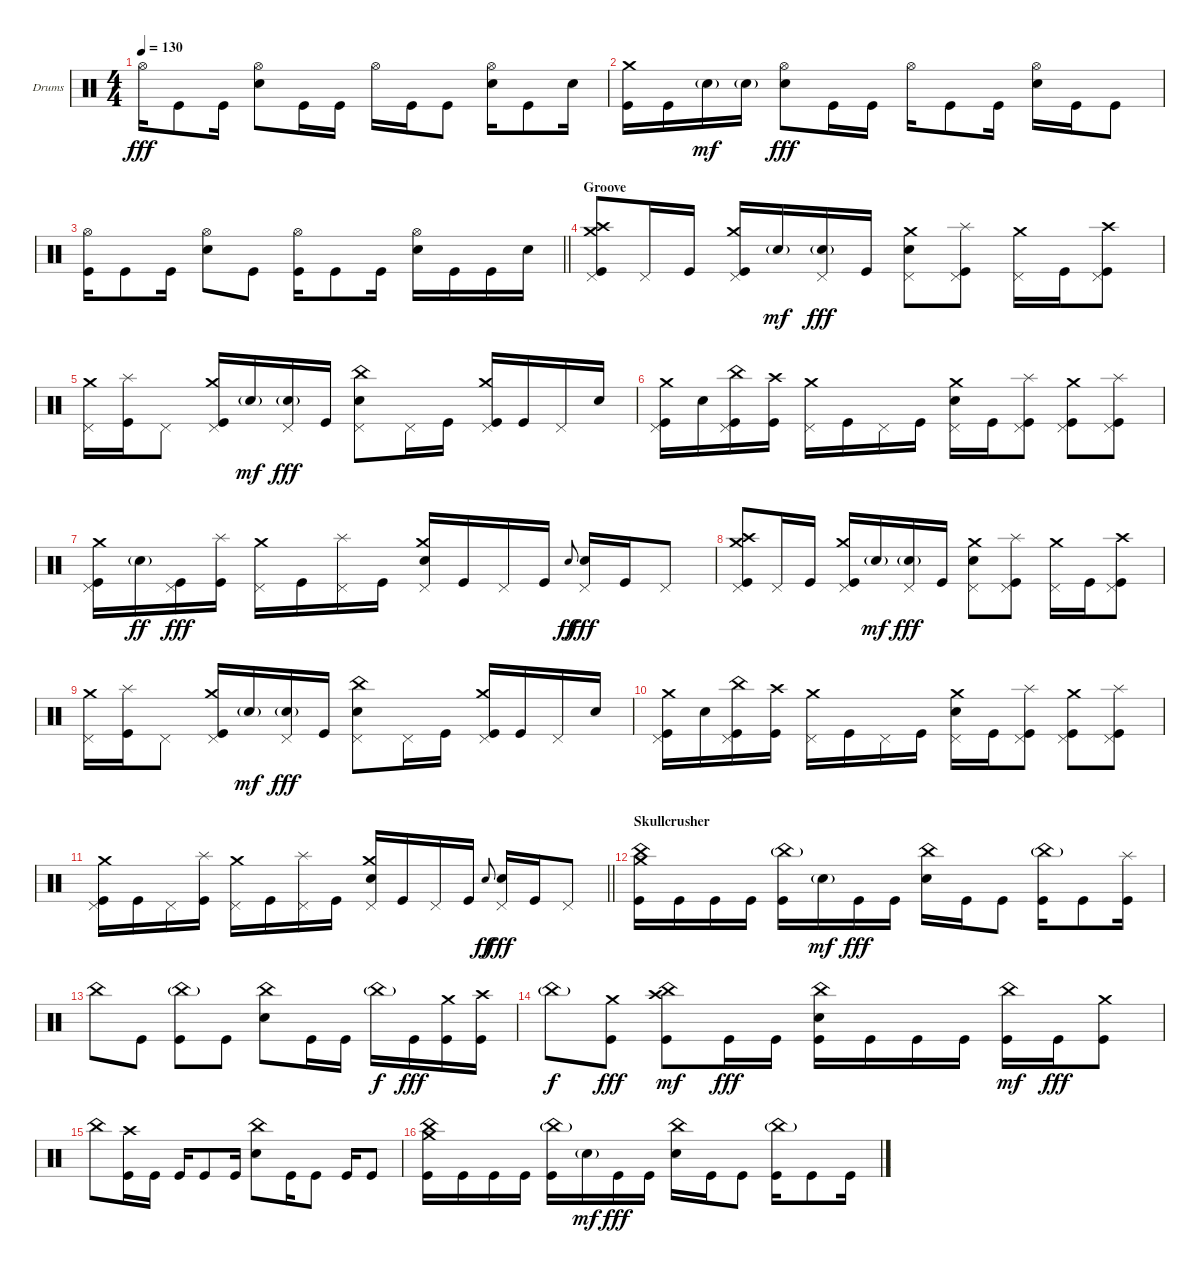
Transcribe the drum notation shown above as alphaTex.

\bracketExtendMode groupsimilarinstruments
\firstSystemTrackNameOrientation horizontal
\otherSystemsTrackNameOrientation horizontal
\track ("Drumkit" "Drums") {instrument percussion}
\staff {score}
\articulation defaults
\ts (4 4)
\tempo 130
\clef neutral
\ks c "Hi-Hat (open)".16{dy fff} "Kick (hit)".8 "Kick (hit)".16
("Hi-Hat (open)" "Snare (hit) 2").8 "Kick (hit)".16 "Kick (hit)".16 "Hi-Hat (open)".16 "Kick (hit)".16 "Kick (hit)".8 ("Hi-Hat (open)" "Snare (hit) 2").16 "Kick (hit)".8 "Snare (hit) 2".16 |
("Crash medium (hit)" "Kick (hit)").16 "Kick (hit)".16 "Snare (hit) 2"{g}.16{dy mf} "Snare (hit) 2"{g}.16 ("Hi-Hat (open)" "Snare (hit) 2").8{dy fff} "Kick (hit)".16 "Kick (hit)".16 "Hi-Hat (open)".16 "Kick (hit)".8 "Kick (hit)".16 ("Hi-Hat (open)" "Snare (hit) 2").16 "Kick (hit)".16 "Kick (hit)".8 |
\barLineRight lightlight
("Hi-Hat (open)" "Kick (hit)").16 "Kick (hit)".8 "Kick (hit)".16 ("Hi-Hat (open)" "Snare (hit) 2").8 "Kick (hit)".8 ("Hi-Hat (open)" "Kick (hit)").16 "Kick (hit)".8 "Kick (hit)".16 ("Hi-Hat (open)" "Snare (hit) 2").16 "Kick (hit)".16 "Kick (hit)".16 "Snare (hit) 2".16 |
\section ("" "Groove")
("Crash medium (hit)" "Crash high (hit)" "Pedal Hi-Hat (hit)" "Kick (hit)").8 "Pedal Hi-Hat (hit)".16 "Kick (hit)".16 ("Crash medium (hit)" "Pedal Hi-Hat (hit)" "Kick (hit)").16 "Snare (hit) 2"{g}.16{dy mf} ("Snare (hit) 2"{g} "Pedal Hi-Hat (hit)").16{dy fff} "Kick (hit)".16 ("Crash medium (hit)" "Snare (hit) 2" "Pedal Hi-Hat (hit)").8 ("Splash (hit)" "Pedal Hi-Hat (hit)" "Kick (hit)").8 ("Crash medium (hit)" "Pedal Hi-Hat (hit)").16 "Kick (hit)".16 ("Crash high (hit)" "Pedal Hi-Hat (hit)" "Kick (hit)").8 |
("Crash medium (hit)" "Pedal Hi-Hat (hit)").16 ("Splash (hit)" "Kick (hit)").16 "Pedal Hi-Hat (hit)".8 ("Crash medium (hit)" "Pedal Hi-Hat (hit)" "Kick (hit)").16 "Snare (hit) 2"{g}.16{dy mf} ("Snare (hit) 2"{g} "Pedal Hi-Hat (hit)").16{dy fff} "Kick (hit)".16 ("China (hit)" "Snare (hit) 2" "Pedal Hi-Hat (hit)").8 "Pedal Hi-Hat (hit)".16 "Kick (hit)".16 ("Crash medium (hit)" "Pedal Hi-Hat (hit)" "Kick (hit)").16 "Kick (hit)".16 "Pedal Hi-Hat (hit)".16 "Snare (hit) 2".16 |
("Crash medium (hit)" "Pedal Hi-Hat (hit)" "Kick (hit)").16 "Snare (hit) 2".16 ("China (hit)" "Pedal Hi-Hat (hit)" "Kick (hit)").16 ("Crash high (hit)" "Kick (hit)").16 ("Crash medium (hit)" "Pedal Hi-Hat (hit)").16 "Kick (hit)".16 "Pedal Hi-Hat (hit)".16 "Kick (hit)".16 ("Crash medium (hit)" "Snare (hit) 2" "Pedal Hi-Hat (hit)").16 "Kick (hit)".16 ("Splash (hit)" "Pedal Hi-Hat (hit)" "Kick (hit)").8 ("Crash medium (hit)" "Pedal Hi-Hat (hit)" "Kick (hit)").8 ("Splash (hit)" "Pedal Hi-Hat (hit)" "Kick (hit)").8 |
("Crash medium (hit)" "Pedal Hi-Hat (hit)" "Kick (hit)").16 "Snare (hit) 2"{g}.16{dy ff} ("Pedal Hi-Hat (hit)" "Kick (hit)").16{dy fff} ("Splash (hit)" "Kick (hit)").16 ("Crash medium (hit)" "Pedal Hi-Hat (hit)").16 "Kick (hit)".16 ("Splash (hit)" "Pedal Hi-Hat (hit)").16 "Kick (hit)".16 ("Crash medium (hit)" "Snare (hit) 2" "Pedal Hi-Hat (hit)").16 "Kick (hit)".16 "Pedal Hi-Hat (hit)".16 "Kick (hit)".16 "Snare (hit) 2".8{gr onbeat dy ff} ("Snare (hit) 2" "Pedal Hi-Hat (hit)").16{dy fff} "Kick (hit)".16 "Pedal Hi-Hat (hit)".8 |
("Crash medium (hit)" "Crash high (hit)" "Pedal Hi-Hat (hit)" "Kick (hit)").8 "Pedal Hi-Hat (hit)".16 "Kick (hit)".16 ("Crash medium (hit)" "Pedal Hi-Hat (hit)" "Kick (hit)").16 "Snare (hit) 2"{g}.16{dy mf} ("Snare (hit) 2"{g} "Pedal Hi-Hat (hit)").16{dy fff} "Kick (hit)".16 ("Crash medium (hit)" "Snare (hit) 2" "Pedal Hi-Hat (hit)").8 ("Splash (hit)" "Pedal Hi-Hat (hit)" "Kick (hit)").8 ("Crash medium (hit)" "Pedal Hi-Hat (hit)").16 "Kick (hit)".16 ("Crash high (hit)" "Pedal Hi-Hat (hit)" "Kick (hit)").8 |
("Crash medium (hit)" "Pedal Hi-Hat (hit)").16 ("Splash (hit)" "Kick (hit)").16 "Pedal Hi-Hat (hit)".8 ("Crash medium (hit)" "Pedal Hi-Hat (hit)" "Kick (hit)").16 "Snare (hit) 2"{g}.16{dy mf} ("Snare (hit) 2"{g} "Pedal Hi-Hat (hit)").16{dy fff} "Kick (hit)".16 ("China (hit)" "Snare (hit) 2" "Pedal Hi-Hat (hit)").8 "Pedal Hi-Hat (hit)".16 "Kick (hit)".16 ("Crash medium (hit)" "Pedal Hi-Hat (hit)" "Kick (hit)").16 "Kick (hit)".16 "Pedal Hi-Hat (hit)".16 "Snare (hit) 2".16 |
("Crash medium (hit)" "Pedal Hi-Hat (hit)" "Kick (hit)").16 "Snare (hit) 2".16 ("China (hit)" "Pedal Hi-Hat (hit)" "Kick (hit)").16 ("Crash high (hit)" "Kick (hit)").16 ("Crash medium (hit)" "Pedal Hi-Hat (hit)").16 "Kick (hit)".16 "Pedal Hi-Hat (hit)".16 "Kick (hit)".16 ("Crash medium (hit)" "Snare (hit) 2" "Pedal Hi-Hat (hit)").16 "Kick (hit)".16 ("Splash (hit)" "Pedal Hi-Hat (hit)" "Kick (hit)").8 ("Crash medium (hit)" "Pedal Hi-Hat (hit)" "Kick (hit)").8 ("Splash (hit)" "Pedal Hi-Hat (hit)" "Kick (hit)").8 |
\barLineRight lightlight
("Crash medium (hit)" "Pedal Hi-Hat (hit)" "Kick (hit)").16 "Kick (hit)".16 "Pedal Hi-Hat (hit)".16 ("Splash (hit)" "Kick (hit)").16 ("Crash medium (hit)" "Pedal Hi-Hat (hit)").16 "Kick (hit)".16 ("Splash (hit)" "Pedal Hi-Hat (hit)").16 "Kick (hit)".16 ("Crash medium (hit)" "Snare (hit) 2" "Pedal Hi-Hat (hit)").16 "Kick (hit)".16 "Pedal Hi-Hat (hit)".16 "Kick (hit)".16 "Snare (hit) 2".8{gr onbeat dy ff} ("Snare (hit) 2" "Pedal Hi-Hat (hit)").16{dy fff} "Kick (hit)".16 "Pedal Hi-Hat (hit)".8 |
\section ("" "Skullcrusher")
("China (hit)" "Crash medium (hit)" "Kick (hit)").16 "Kick (hit)".16 "Kick (hit)".16 "Kick (hit)".16 ("China (hit)"{g} "Kick (hit)").16 "Snare (hit) 2"{g}.16{dy mf} "Kick (hit)".16{dy fff} "Kick (hit)".16 ("China (hit)" "Snare (hit) 2").16 "Kick (hit)".16 "Kick (hit)".8 ("China (hit)"{g} "Kick (hit)").16 "Kick (hit)".8 ("Splash (hit)" "Kick (hit)").16 |
"China (hit)".8 "Kick (hit)".8 ("China (hit)"{g} "Kick (hit)").8 "Kick (hit)".8 ("China (hit)" "Snare (hit) 2").8 "Kick (hit)".16 "Kick (hit)".16 "China (hit)"{g}.16{dy f} "Kick (hit)".16{dy fff} ("Crash medium (hit)" "Kick (hit)").16 ("Crash high (hit)" "Kick (hit)").16 |
"China (hit)"{g}.8{dy f} ("Crash medium (hit)" "Kick (hit)").8{dy fff} ("China (hit)" "Crash high (hit)" "Kick (hit)").8{dy mf} "Kick (hit)".16{dy fff} "Kick (hit)".16 ("China (hit)" "Snare (hit) 2" "Kick (hit)").16 "Kick (hit)".16 "Kick (hit)".16 "Kick (hit)".16 ("China (hit)" "Kick (hit)").16{dy mf} "Kick (hit)".16{dy fff} ("Crash medium (hit)" "Kick (hit)").8 |
"China (hit)".8 ("Crash high (hit)" "Kick (hit)").16 "Kick (hit)".16 "Kick (hit)".16 "Kick (hit)".8 "Kick (hit)".16 ("China (hit)" "Snare (hit) 2").8 "Kick (hit)".16 "Kick (hit)".8 "Kick (hit)".16 "Kick (hit)".8 |
("China (hit)" "Crash medium (hit)" "Kick (hit)").16 "Kick (hit)".16 "Kick (hit)".16 "Kick (hit)".16 ("China (hit)"{g} "Kick (hit)").16 "Snare (hit) 2"{g}.16{dy mf} "Kick (hit)".16{dy fff} "Kick (hit)".16 ("China (hit)" "Snare (hit) 2").16 "Kick (hit)".16 "Kick (hit)".8 ("China (hit)"{g} "Kick (hit)").16 "Kick (hit)".8 "Kick (hit)".16
